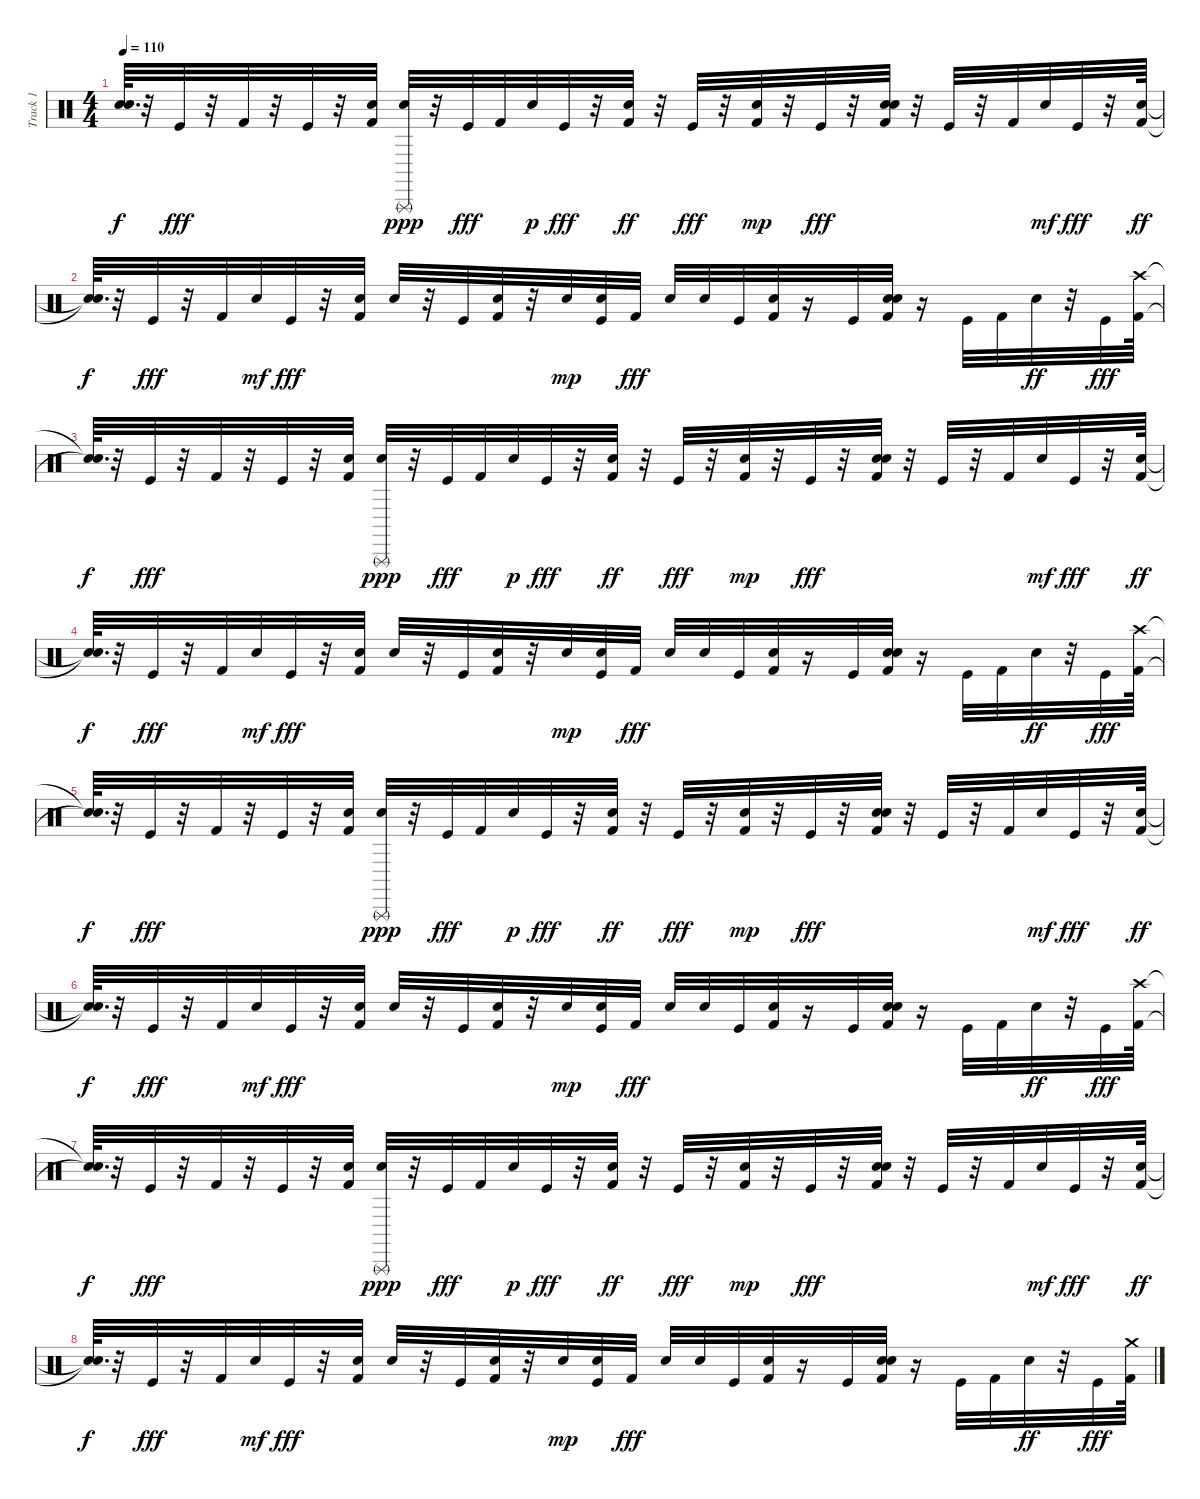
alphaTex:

\track ("Track 1" "Track 1") {mute instrument percussion}
\staff {score}
\articulation defaults
\ts (4 4)
\tempo 110
\clef neutral
\ks c
("Snare (hit)"{t} "Snare (hit)"{t}).64{d dy f} r.32 "Kick (hit)".32{dy fff} r.32 "Kick (hit) 2".32 r.32 "Kick (hit)".32 r.32 ("Kick (hit) 2" "Snare (hit)").32 ("Snare (hit) 2" "Triangle (rnute)").32{dy ppp} r.32 "Kick (hit)".32{dy fff} "Kick (hit) 2".32 "Snare (hit)".32{dy p} "Kick (hit)".32{dy fff} r.32 ("Kick (hit) 2" "Snare (hit)").32{dy ff} r.32 "Kick (hit)".32{dy fff} r.32 ("Kick (hit) 2" "Snare (hit)").32{dy mp} r.32 "Kick (hit)".32{dy fff} r.32 ("Kick (hit) 2" "Snare (hit)" "Snare (hit) 2").32 r.32 "Kick (hit)".32 r.32 "Kick (hit) 2".32 "Snare (hit)".32{dy mf} "Kick (hit)".32{dy fff} r.32 ("Kick (hit) 2" "Snare (hit)").64{dy ff} |
("Snare (hit)"{t} "Snare (hit)"{t}).64{d dy f} r.32 "Kick (hit)".32{dy fff} r.32 "Kick (hit) 2".32 "Snare (hit)".32{dy mf} "Kick (hit)".32{dy fff} r.32 ("Snare (hit) 2" "Kick (hit) 2").32 "Snare (hit)".32 r.32 "Kick (hit)".32 ("Snare (hit)" "Kick (hit) 2").32 r.32 "Snare (hit) 2".32{dy mp} ("Kick (hit)" "Snare (hit) 2").32 "Kick (hit) 2".32{dy fff} "Snare (hit)".32 "Snare (hit) 2".32 "Kick (hit)".32 ("Snare (hit)" "Kick (hit) 2").32 r.16 "Kick (hit)".32 ("Snare (hit) 2" "Kick (hit) 2" "Snare (hit)").32 r.16 "Kick (hit)".32 "Kick (hit) 2".32 "Snare (hit)".32{dy ff} r.32 "Kick (hit)".32{dy fff} ("Crash high (hit)" "Kick (hit) 2").64 |
("Snare (hit)"{t} "Snare (hit)"{t}).64{d dy f} r.32 "Kick (hit)".32{dy fff} r.32 "Kick (hit) 2".32 r.32 "Kick (hit)".32 r.32 ("Kick (hit) 2" "Snare (hit)").32 ("Snare (hit) 2" "Triangle (rnute)").32{dy ppp} r.32 "Kick (hit)".32{dy fff} "Kick (hit) 2".32 "Snare (hit)".32{dy p} "Kick (hit)".32{dy fff} r.32 ("Kick (hit) 2" "Snare (hit)").32{dy ff} r.32 "Kick (hit)".32{dy fff} r.32 ("Kick (hit) 2" "Snare (hit)").32{dy mp} r.32 "Kick (hit)".32{dy fff} r.32 ("Kick (hit) 2" "Snare (hit)" "Snare (hit) 2").32 r.32 "Kick (hit)".32 r.32 "Kick (hit) 2".32 "Snare (hit)".32{dy mf} "Kick (hit)".32{dy fff} r.32 ("Kick (hit) 2" "Snare (hit)").64{dy ff} |
("Snare (hit)"{t} "Snare (hit)"{t}).64{d dy f} r.32 "Kick (hit)".32{dy fff} r.32 "Kick (hit) 2".32 "Snare (hit)".32{dy mf} "Kick (hit)".32{dy fff} r.32 ("Snare (hit) 2" "Kick (hit) 2").32 "Snare (hit)".32 r.32 "Kick (hit)".32 ("Snare (hit)" "Kick (hit) 2").32 r.32 "Snare (hit) 2".32{dy mp} ("Kick (hit)" "Snare (hit) 2").32 "Kick (hit) 2".32{dy fff} "Snare (hit)".32 "Snare (hit) 2".32 "Kick (hit)".32 ("Snare (hit)" "Kick (hit) 2").32 r.16 "Kick (hit)".32 ("Snare (hit) 2" "Kick (hit) 2" "Snare (hit)").32 r.16 "Kick (hit)".32 "Kick (hit) 2".32 "Snare (hit)".32{dy ff} r.32 "Kick (hit)".32{dy fff} ("Crash high (hit)" "Kick (hit) 2").64 |
("Snare (hit)"{t} "Snare (hit)"{t}).64{d dy f} r.32 "Kick (hit)".32{dy fff} r.32 "Kick (hit) 2".32 r.32 "Kick (hit)".32 r.32 ("Kick (hit) 2" "Snare (hit)").32 ("Snare (hit) 2" "Triangle (rnute)").32{dy ppp} r.32 "Kick (hit)".32{dy fff} "Kick (hit) 2".32 "Snare (hit)".32{dy p} "Kick (hit)".32{dy fff} r.32 ("Kick (hit) 2" "Snare (hit)").32{dy ff} r.32 "Kick (hit)".32{dy fff} r.32 ("Kick (hit) 2" "Snare (hit)").32{dy mp} r.32 "Kick (hit)".32{dy fff} r.32 ("Kick (hit) 2" "Snare (hit)" "Snare (hit) 2").32 r.32 "Kick (hit)".32 r.32 "Kick (hit) 2".32 "Snare (hit)".32{dy mf} "Kick (hit)".32{dy fff} r.32 ("Kick (hit) 2" "Snare (hit)").64{dy ff} |
("Snare (hit)"{t} "Snare (hit)"{t}).64{d dy f} r.32 "Kick (hit)".32{dy fff} r.32 "Kick (hit) 2".32 "Snare (hit)".32{dy mf} "Kick (hit)".32{dy fff} r.32 ("Snare (hit) 2" "Kick (hit) 2").32 "Snare (hit)".32 r.32 "Kick (hit)".32 ("Snare (hit)" "Kick (hit) 2").32 r.32 "Snare (hit) 2".32{dy mp} ("Kick (hit)" "Snare (hit) 2").32 "Kick (hit) 2".32{dy fff} "Snare (hit)".32 "Snare (hit) 2".32 "Kick (hit)".32 ("Snare (hit)" "Kick (hit) 2").32 r.16 "Kick (hit)".32 ("Snare (hit) 2" "Kick (hit) 2" "Snare (hit)").32 r.16 "Kick (hit)".32 "Kick (hit) 2".32 "Snare (hit)".32{dy ff} r.32 "Kick (hit)".32{dy fff} ("Crash high (hit)" "Kick (hit) 2").64 |
("Snare (hit)"{t} "Snare (hit)"{t}).64{d dy f} r.32 "Kick (hit)".32{dy fff} r.32 "Kick (hit) 2".32 r.32 "Kick (hit)".32 r.32 ("Kick (hit) 2" "Snare (hit)").32 ("Snare (hit) 2" "Triangle (rnute)").32{dy ppp} r.32 "Kick (hit)".32{dy fff} "Kick (hit) 2".32 "Snare (hit)".32{dy p} "Kick (hit)".32{dy fff} r.32 ("Kick (hit) 2" "Snare (hit)").32{dy ff} r.32 "Kick (hit)".32{dy fff} r.32 ("Kick (hit) 2" "Snare (hit)").32{dy mp} r.32 "Kick (hit)".32{dy fff} r.32 ("Kick (hit) 2" "Snare (hit)" "Snare (hit) 2").32 r.32 "Kick (hit)".32 r.32 "Kick (hit) 2".32 "Snare (hit)".32{dy mf} "Kick (hit)".32{dy fff} r.32 ("Kick (hit) 2" "Snare (hit)").64{dy ff} |
("Snare (hit)"{t} "Snare (hit)"{t}).64{d dy f} r.32 "Kick (hit)".32{dy fff} r.32 "Kick (hit) 2".32 "Snare (hit)".32{dy mf} "Kick (hit)".32{dy fff} r.32 ("Snare (hit) 2" "Kick (hit) 2").32 "Snare (hit)".32 r.32 "Kick (hit)".32 ("Snare (hit)" "Kick (hit) 2").32 r.32 "Snare (hit) 2".32{dy mp} ("Kick (hit)" "Snare (hit) 2").32 "Kick (hit) 2".32{dy fff} "Snare (hit)".32 "Snare (hit) 2".32 "Kick (hit)".32 ("Snare (hit)" "Kick (hit) 2").32 r.16 "Kick (hit)".32 ("Snare (hit) 2" "Kick (hit) 2" "Snare (hit)").32 r.16 "Kick (hit)".32 "Kick (hit) 2".32 "Snare (hit)".32{dy ff} r.32 "Kick (hit)".32{dy fff} ("Kick (hit) 2" "Crash medium (hit)").64
